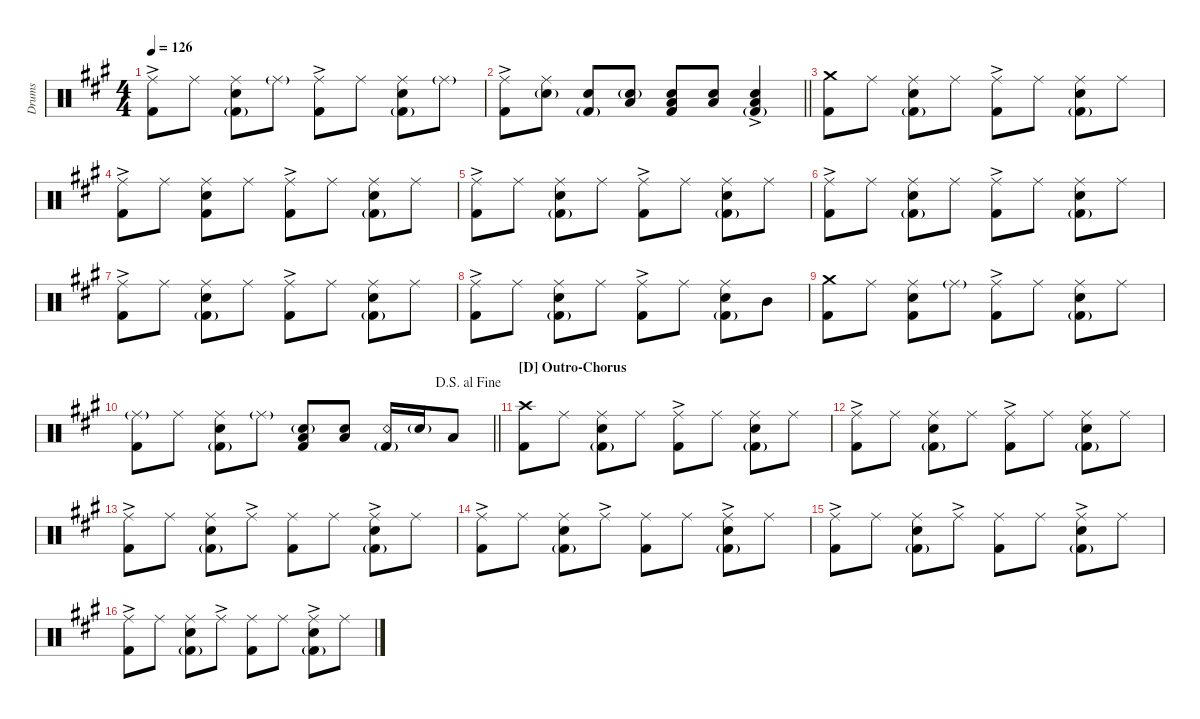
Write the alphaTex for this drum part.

\hideDynamics
\bracketExtendMode groupsimilarinstruments
\otherSystemsTrackNameOrientation horizontal
\track ("Drumkit" "Drums") {defaultSystemsLayout 4 instrument percussion}
\staff {score}
\articulation defaults
\ts (4 4)
\tempo 126
\clef neutral
\ks a
("Ride (middle)"{ac acc forcenatural} "Kick (hit) 2"{acc forcenatural}).8{dy f beam Down} "Ride (middle)"{acc forcenatural}.8{beam Down} ("Ride (middle)"{acc forcenatural} "Snare (hit) 2"{acc forcenatural} "Kick (hit) 2"{g acc forcenatural}).8{beam Down} "Ride (middle)"{g acc forcenatural}.8{beam Down} ("Ride (middle)"{ac acc forcenatural} "Kick (hit) 2"{acc forcenatural}).8{beam Down} "Ride (middle)"{acc forcenatural}.8{beam Down} ("Ride (middle)"{acc forcenatural} "Snare (hit) 2"{acc forcenatural} "Kick (hit) 2"{g acc forcenatural}).8{beam Down} "Ride (middle)"{g acc forcenatural}.8{beam Down} |
\barLineRight lightlight
("Ride (middle)"{ac acc forcenatural} "Kick (hit) 2"{acc forcenatural}).8{beam Down} ("Ride (middle)"{acc forcenatural} "Snare (hit) 2"{g acc forcenatural}).8{beam Down} ("Snare (hit) 2"{acc forcenatural} "Kick (hit) 2"{g acc forcenatural}).8{beam Up} ("Snare (hit) 2"{g acc forcenatural} "Low Tom (hit)"{acc forcenatural}).8{beam Up} ("Low Tom (hit)"{acc forcenatural} "Snare (hit) 2"{acc forcenatural} "Kick (hit) 2"{acc forcenatural}).8{beam Up} ("Low Tom (hit)"{acc forcenatural} "Snare (hit) 2"{acc forcenatural}).8{beam Up} ("Low Tom (hit)"{ac acc forcenatural} "Snare (hit) 2"{acc forcenatural} "Kick (hit) 2"{g acc forcenatural}).4{beam Up} |
("Crash medium (hit)"{acc forcenatural} "Kick (hit) 2"{acc forcenatural}).8{beam Down} "Ride (middle)"{acc forcenatural}.8{beam Down} ("Ride (middle)"{acc forcenatural} "Snare (hit) 2"{acc forcenatural} "Kick (hit) 2"{g acc forcenatural}).8{beam Down} "Ride (middle)"{acc forcenatural}.8{beam Down} ("Ride (middle)"{ac acc forcenatural} "Kick (hit) 2"{acc forcenatural}).8{beam Down} "Ride (middle)"{acc forcenatural}.8{beam Down} ("Ride (middle)"{acc forcenatural} "Snare (hit) 2"{acc forcenatural} "Kick (hit) 2"{g acc forcenatural}).8{beam Down} "Ride (middle)"{acc forcenatural}.8{beam Down} |
("Ride (middle)"{ac acc forcenatural} "Kick (hit) 2"{acc forcenatural}).8{beam Down} "Ride (middle)"{acc forcenatural}.8{beam Down} ("Ride (middle)"{acc forcenatural} "Snare (hit) 2"{acc forcenatural} "Kick (hit) 2"{acc forcenatural}).8{beam Down} "Ride (middle)"{acc forcenatural}.8{beam Down} ("Ride (middle)"{ac acc forcenatural} "Kick (hit) 2"{acc forcenatural}).8{beam Down} "Ride (middle)"{acc forcenatural}.8{beam Down} ("Ride (middle)"{acc forcenatural} "Snare (hit) 2"{acc forcenatural} "Kick (hit) 2"{g acc forcenatural}).8{beam Down} "Ride (middle)"{acc forcenatural}.8{beam Down} |
("Ride (middle)"{ac acc forcenatural} "Kick (hit) 2"{acc forcenatural}).8{beam Down} "Ride (middle)"{acc forcenatural}.8{beam Down} ("Ride (middle)"{acc forcenatural} "Snare (hit) 2"{acc forcenatural} "Kick (hit) 2"{g acc forcenatural}).8{beam Down} "Ride (middle)"{acc forcenatural}.8{beam Down} ("Ride (middle)"{ac acc forcenatural} "Kick (hit) 2"{acc forcenatural}).8{beam Down} "Ride (middle)"{acc forcenatural}.8{beam Down} ("Ride (middle)"{acc forcenatural} "Snare (hit) 2"{acc forcenatural} "Kick (hit) 2"{g acc forcenatural}).8{beam Down} "Ride (middle)"{acc forcenatural}.8{beam Down} |
("Ride (middle)"{ac acc forcenatural} "Kick (hit) 2"{acc forcenatural}).8{beam Down} "Ride (middle)"{acc forcenatural}.8{beam Down} ("Ride (middle)"{acc forcenatural} "Snare (hit) 2"{acc forcenatural} "Kick (hit) 2"{g acc forcenatural}).8{beam Down} "Ride (middle)"{acc forcenatural}.8{beam Down} ("Ride (middle)"{ac acc forcenatural} "Kick (hit) 2"{acc forcenatural}).8{beam Down} "Ride (middle)"{acc forcenatural}.8{beam Down} ("Ride (middle)"{acc forcenatural} "Snare (hit) 2"{acc forcenatural} "Kick (hit) 2"{g acc forcenatural}).8{beam Down} "Ride (middle)"{acc forcenatural}.8{beam Down} |
("Ride (middle)"{ac acc forcenatural} "Kick (hit) 2"{acc forcenatural}).8{beam Down} "Ride (middle)"{acc forcenatural}.8{beam Down} ("Ride (middle)"{acc forcenatural} "Snare (hit) 2"{acc forcenatural} "Kick (hit) 2"{g acc forcenatural}).8{beam Down} "Ride (middle)"{acc forcenatural}.8{beam Down} ("Ride (middle)"{ac acc forcenatural} "Kick (hit) 2"{acc forcenatural}).8{beam Down} "Ride (middle)"{acc forcenatural}.8{beam Down} ("Ride (middle)"{acc forcenatural} "Snare (hit) 2"{acc forcenatural} "Kick (hit) 2"{g acc forcenatural}).8{beam Down} "Ride (middle)"{acc forcenatural}.8{beam Down} |
("Ride (middle)"{ac acc forcenatural} "Kick (hit) 2"{acc forcenatural}).8{beam Down} "Ride (middle)"{acc forcenatural}.8{beam Down} ("Ride (middle)"{acc forcenatural} "Snare (hit) 2"{acc forcenatural} "Kick (hit) 2"{g acc forcenatural}).8{beam Down} "Ride (middle)"{acc forcenatural}.8{beam Down} ("Ride (middle)"{ac acc forcenatural} "Kick (hit) 2"{acc forcenatural}).8{beam Down} "Ride (middle)"{acc forcenatural}.8{beam Down} ("Ride (middle)"{acc forcenatural} "Snare (hit) 2"{acc forcenatural} "Kick (hit) 2"{g acc forcenatural}).8{beam Down} "Mid Tom (hit)"{acc forcenatural}.8{beam Down} |
("Kick (hit) 2"{acc forcenatural} "Crash medium (hit)"{acc forcenatural}).8{beam Down} "Ride (middle)"{acc forcenatural}.8{beam Down} ("Ride (middle)"{acc forcenatural} "Snare (hit) 2"{acc forcenatural} "Kick (hit) 2"{acc forcenatural}).8{beam Down} "Ride (middle)"{g acc forcenatural}.8{beam Down} ("Ride (middle)"{ac acc forcenatural} "Kick (hit) 2"{acc forcenatural}).8{beam Down} "Ride (middle)"{acc forcenatural}.8{beam Down} ("Ride (middle)"{acc forcenatural} "Snare (hit) 2"{acc forcenatural} "Kick (hit) 2"{g acc forcenatural}).8{beam Down} "Ride (middle)"{acc forcenatural}.8{beam Down} |
\jump dalsegnoalfine
\barLineRight lightlight
("Ride (middle)"{g acc forcenatural} "Kick (hit) 2"{acc forcenatural}).8{beam Down} "Ride (middle)"{acc forcenatural}.8{beam Down} ("Ride (middle)"{acc forcenatural} "Snare (hit) 2"{acc forcenatural} "Kick (hit) 2"{g acc forcenatural}).8{beam Down} "Ride (middle)"{g acc forcenatural}.8{beam Down} ("Low Tom (hit)"{acc forcenatural} "Snare (hit) 2"{g acc forcenatural} "Kick (hit) 2"{acc forcenatural}).8{beam Up} ("Low Tom (hit)"{acc forcenatural} "Snare (hit) 2"{acc forcenatural}).8{beam Up} ("Snare (rim shot)"{acc forcenatural} "Kick (hit) 2"{g acc forcenatural}).16{beam Up} "Snare (hit) 2"{g acc forcenatural}.16{beam Up} "Low Tom (hit)"{acc forcenatural}.8{beam Up} |
\section ("D" "Outro-Chorus")
("Crash high (hit)"{acc forcenatural} "Kick (hit) 2"{acc forcenatural}).8{beam Down} "Ride (middle)"{acc forcenatural}.8{beam Down} ("Ride (middle)"{acc forcenatural} "Snare (hit) 2"{acc forcenatural} "Kick (hit) 2"{g acc forcenatural}).8{beam Down} "Ride (middle)"{acc forcenatural}.8{beam Down} ("Ride (middle)"{ac acc forcenatural} "Kick (hit) 2"{acc forcenatural}).8{beam Down} "Ride (middle)"{acc forcenatural}.8{beam Down} ("Ride (middle)"{acc forcenatural} "Snare (hit) 2"{acc forcenatural} "Kick (hit) 2"{g acc forcenatural}).8{beam Down} "Ride (middle)"{acc forcenatural}.8{beam Down} |
("Ride (middle)"{ac acc forcenatural} "Kick (hit) 2"{acc forcenatural}).8{beam Down} "Ride (middle)"{acc forcenatural}.8{beam Down} ("Ride (middle)"{acc forcenatural} "Snare (hit) 2"{acc forcenatural} "Kick (hit) 2"{g acc forcenatural}).8{beam Down} "Ride (middle)"{acc forcenatural}.8{beam Down} ("Ride (middle)"{ac acc forcenatural} "Kick (hit) 2"{acc forcenatural}).8{beam Down} "Ride (middle)"{acc forcenatural}.8{beam Down} ("Ride (middle)"{acc forcenatural} "Snare (hit) 2"{acc forcenatural} "Kick (hit) 2"{g acc forcenatural}).8{beam Down} "Ride (middle)"{acc forcenatural}.8{beam Down} |
("Ride (middle)"{ac acc forcenatural} "Kick (hit) 2"{acc forcenatural}).8{beam Down} "Ride (middle)"{acc forcenatural}.8{beam Down} ("Ride (middle)"{acc forcenatural} "Snare (hit) 2"{acc forcenatural} "Kick (hit) 2"{g acc forcenatural}).8{beam Down} "Ride (middle)"{ac acc forcenatural}.8{beam Down} ("Ride (middle)"{acc forcenatural} "Kick (hit) 2"{acc forcenatural}).8{beam Down} "Ride (middle)"{acc forcenatural}.8{beam Down} ("Ride (middle)"{ac acc forcenatural} "Snare (hit) 2"{acc forcenatural} "Kick (hit) 2"{g acc forcenatural}).8{beam Down} "Ride (middle)"{acc forcenatural}.8{beam Down} |
("Ride (middle)"{ac acc forcenatural} "Kick (hit) 2"{acc forcenatural}).8{beam Down} "Ride (middle)"{acc forcenatural}.8{beam Down} ("Ride (middle)"{acc forcenatural} "Snare (hit) 2"{acc forcenatural} "Kick (hit) 2"{g acc forcenatural}).8{beam Down} "Ride (middle)"{ac acc forcenatural}.8{beam Down} ("Ride (middle)"{acc forcenatural} "Kick (hit) 2"{acc forcenatural}).8{beam Down} "Ride (middle)"{acc forcenatural}.8{beam Down} ("Ride (middle)"{ac acc forcenatural} "Snare (hit) 2"{acc forcenatural} "Kick (hit) 2"{g acc forcenatural}).8{beam Down} "Ride (middle)"{acc forcenatural}.8{beam Down} |
("Ride (middle)"{ac acc forcenatural} "Kick (hit) 2"{acc forcenatural}).8{beam Down} "Ride (middle)"{acc forcenatural}.8{beam Down} ("Ride (middle)"{acc forcenatural} "Snare (hit) 2"{acc forcenatural} "Kick (hit) 2"{g acc forcenatural}).8{beam Down} "Ride (middle)"{ac acc forcenatural}.8{beam Down} ("Ride (middle)"{acc forcenatural} "Kick (hit) 2"{acc forcenatural}).8{beam Down} "Ride (middle)"{acc forcenatural}.8{beam Down} ("Ride (middle)"{ac acc forcenatural} "Snare (hit) 2"{acc forcenatural} "Kick (hit) 2"{g acc forcenatural}).8{beam Down} "Ride (middle)"{acc forcenatural}.8{beam Down} |
("Ride (middle)"{ac acc forcenatural} "Kick (hit) 2"{acc forcenatural}).8{beam Down} "Ride (middle)"{acc forcenatural}.8{beam Down} ("Ride (middle)"{acc forcenatural} "Snare (hit) 2"{acc forcenatural} "Kick (hit) 2"{g acc forcenatural}).8{beam Down} "Ride (middle)"{ac acc forcenatural}.8{beam Down} ("Ride (middle)"{acc forcenatural} "Kick (hit) 2"{acc forcenatural}).8{beam Down} "Ride (middle)"{acc forcenatural}.8{beam Down} ("Ride (middle)"{ac acc forcenatural} "Snare (hit) 2"{acc forcenatural} "Kick (hit) 2"{g acc forcenatural}).8{beam Down} "Ride (middle)"{acc forcenatural}.8{beam Down}
